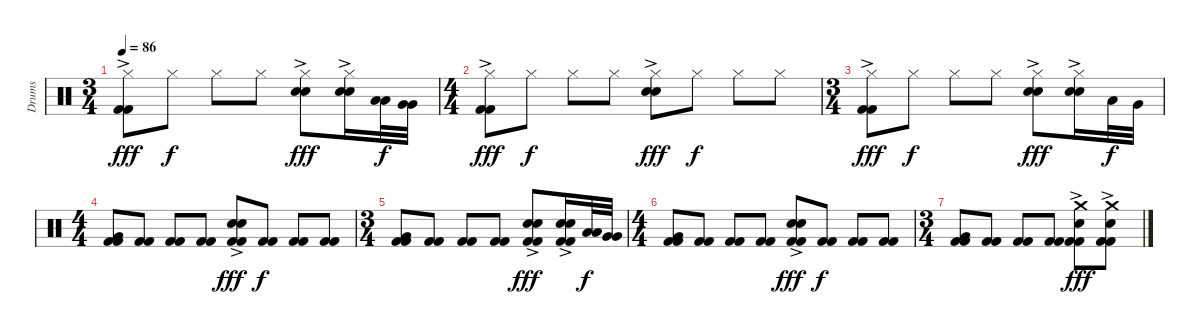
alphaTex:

\track ("Drums" "Drums") {instrument percussion}
\staff {score}
\articulation defaults
\ts (3 4)
\tempo 86
\clef neutral
\ks c
("Hi-Hat (closed)" "Kick (hit) 2"{ac} "Kick (hit) 2"{ac}).8{dy fff} "Hi-Hat (closed)".8{dy f} "Hi-Hat (closed)".8 "Hi-Hat (closed)".8 ("Hi-Hat (closed)" "Electric Snare (hit)"{ac} "Electric Snare (hit)").8{dy fff} ("Hi-Hat (closed)" "Electric Snare (hit)"{ac} "Electric Snare (hit)").16 ("Low Tom (hit)" "Low Tom (hit)").32{dy f} ("Very Low Tom (hit)" "Very Low Tom (hit)").32 |
\ts (4 4)
("Hi-Hat (closed)" "Kick (hit) 2"{ac} "Kick (hit) 2"{ac}).8{dy fff} "Hi-Hat (closed)".8{dy f} "Hi-Hat (closed)".8 "Hi-Hat (closed)".8 ("Hi-Hat (closed)"{ac} "Electric Snare (hit)"{ac} "Electric Snare (hit)").8{dy fff} "Hi-Hat (closed)".8{dy f} "Hi-Hat (closed)".8 "Hi-Hat (closed)".8 |
\ts (3 4)
("Hi-Hat (closed)" "Kick (hit) 2"{ac} "Kick (hit) 2"{ac}).8{dy fff} "Hi-Hat (closed)".8{dy f} "Hi-Hat (closed)".8 "Hi-Hat (closed)".8 ("Hi-Hat (closed)"{ac} "Electric Snare (hit)"{ac} "Electric Snare (hit)").8{dy fff} ("Hi-Hat (closed)"{ac} "Electric Snare (hit)"{ac} "Electric Snare (hit)").16 "Low Tom (hit)".32{dy f} "Very Low Tom (hit)".32 |
\ts (4 4)
("Very Low Tom (hit)" "Kick (hit) 2" "Kick (hit) 2").8 ("Kick (hit) 2" "Kick (hit) 2").8 ("Kick (hit) 2" "Kick (hit) 2").8 ("Kick (hit) 2" "Kick (hit) 2").8 ("Electric Snare (hit)"{ac} "Electric Snare (hit)"{ac} "Kick (hit) 2" "Kick (hit) 2").8{dy fff} ("Kick (hit) 2" "Kick (hit) 2").8{dy f} ("Kick (hit) 2" "Kick (hit) 2").8 ("Kick (hit) 2" "Kick (hit) 2").8 |
\ts (3 4)
("Very Low Tom (hit)" "Kick (hit) 2" "Kick (hit) 2").8 ("Kick (hit) 2" "Kick (hit) 2").8 ("Kick (hit) 2" "Kick (hit) 2").8 ("Kick (hit) 2" "Kick (hit) 2").8 ("Electric Snare (hit)"{ac} "Electric Snare (hit)"{ac} "Kick (hit) 2" "Kick (hit) 2").8{dy fff} ("Electric Snare (hit)"{ac} "Electric Snare (hit)"{ac} "Kick (hit) 2" "Kick (hit) 2").16 ("Low Tom (hit)" "Low Tom (hit)").32{dy f} ("Very Low Tom (hit)" "Very Low Tom (hit)").32 |
\ts (4 4)
("Very Low Tom (hit)" "Kick (hit) 2" "Kick (hit) 2").8 ("Kick (hit) 2" "Kick (hit) 2").8 ("Kick (hit) 2" "Kick (hit) 2").8 ("Kick (hit) 2" "Kick (hit) 2").8 ("Electric Snare (hit)"{ac} "Electric Snare (hit)"{ac} "Kick (hit) 2" "Kick (hit) 2").8{dy fff} ("Kick (hit) 2" "Kick (hit) 2").8{dy f} ("Kick (hit) 2" "Kick (hit) 2").8 ("Kick (hit) 2" "Kick (hit) 2").8 |
\ts (3 4)
("Very Low Tom (hit)" "Kick (hit) 2" "Kick (hit) 2").8 ("Kick (hit) 2" "Kick (hit) 2").8 ("Kick (hit) 2" "Kick (hit) 2").8 ("Kick (hit) 2" "Kick (hit) 2").8 ("Crash medium (hit)"{ac} "Electric Snare (hit)"{ac} "Kick (hit) 2" "Kick (hit) 2").8{dy fff} ("Crash medium (hit)"{ac} "Electric Snare (hit)"{ac} "Kick (hit) 2" "Kick (hit) 2").8
